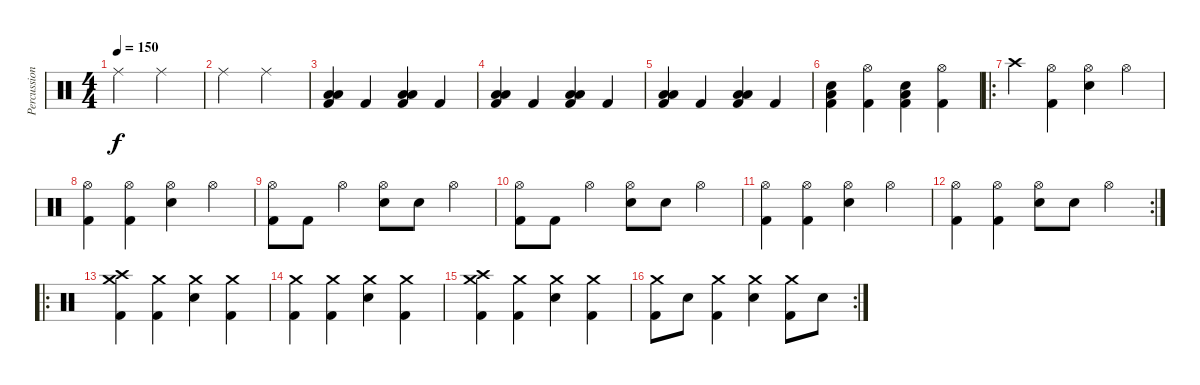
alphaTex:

\track ("Percussioni" "Percussion") {instrument percussion}
\staff {score}
\articulation defaults
\ts (4 4)
\tempo 150
\clef neutral
\ks c "Ride (middle)".2{dy f} "Ride (middle)".2
|
"Ride (middle)".2 "Ride (middle)".2 |
("Low Tom (hit)" "Kick (hit) 2" "Low Floor Tom (hit)").4 "Kick (hit) 2".4 ("Low Tom (hit)" "Kick (hit) 2" "Low Floor Tom (hit)").4 "Kick (hit) 2".4 |
("Low Tom (hit)" "Kick (hit) 2" "Low Floor Tom (hit)").4 "Kick (hit) 2".4 ("Low Tom (hit)" "Kick (hit) 2" "Low Floor Tom (hit)").4 "Kick (hit) 2".4 |
("Low Tom (hit)" "Kick (hit) 2" "Low Floor Tom (hit)").4 "Kick (hit) 2".4 ("Low Tom (hit)" "Kick (hit) 2" "Low Floor Tom (hit)").4 "Kick (hit) 2".4 |
("Low Tom (hit)" "Kick (hit) 2" "Snare (hit) 2").4 ("Hi-Hat (open)" "Kick (hit) 2").4 ("Low Tom (hit)" "Kick (hit) 2" "Snare (hit) 2").4 ("Hi-Hat (open)" "Kick (hit) 2").4 |
\ro "Crash high (hit)".4
("Hi-Hat (open)" "Kick (hit) 2").4 ("Hi-Hat (open)" "Snare (hit) 2").4 "Hi-Hat (open)".4 |
("Hi-Hat (open)" "Kick (hit) 2").4 ("Hi-Hat (open)" "Kick (hit) 2").4 ("Hi-Hat (open)" "Snare (hit) 2").4 "Hi-Hat (open)".4 |
("Hi-Hat (open)" "Kick (hit) 2").8 "Kick (hit) 2".8 "Hi-Hat (open)".4 ("Hi-Hat (open)" "Snare (hit) 2").8 "Snare (hit) 2".8 "Hi-Hat (open)".4 |
("Hi-Hat (open)" "Kick (hit) 2").8 "Kick (hit) 2".8 "Hi-Hat (open)".4 ("Hi-Hat (open)" "Snare (hit) 2").8 "Snare (hit) 2".8 "Hi-Hat (open)".4 |
("Hi-Hat (open)" "Kick (hit) 2").4 ("Hi-Hat (open)" "Kick (hit) 2").4 ("Hi-Hat (open)" "Snare (hit) 2").4 "Hi-Hat (open)".4 |
\rc 2
("Hi-Hat (open)" "Kick (hit) 2").4 ("Hi-Hat (open)" "Kick (hit) 2").4 ("Hi-Hat (open)" "Snare (hit) 2").8 "Snare (hit) 2".8 "Hi-Hat (open)".4 |
\ro
("Crash high (hit)" "Crash medium (hit)" "Kick (hit) 2").4 ("Crash medium (hit)" "Kick (hit) 2").4 ("Crash medium (hit)" "Snare (hit) 2").4 ("Crash medium (hit)" "Kick (hit) 2").4 |
("Crash medium (hit)" "Kick (hit) 2").4 ("Crash medium (hit)" "Kick (hit) 2").4 ("Crash medium (hit)" "Snare (hit) 2").4 ("Crash medium (hit)" "Kick (hit) 2").4 |
("Crash high (hit)" "Crash medium (hit)" "Kick (hit) 2").4 ("Crash medium (hit)" "Kick (hit) 2").4 ("Crash medium (hit)" "Snare (hit) 2").4 ("Crash medium (hit)" "Kick (hit) 2").4 |
\rc 2
("Crash medium (hit)" "Kick (hit) 2").8 "Snare (hit) 2".8 ("Crash medium (hit)" "Kick (hit) 2").4 ("Crash medium (hit)" "Snare (hit) 2").4 ("Crash medium (hit)" "Kick (hit) 2").8 "Snare (hit) 2".8
